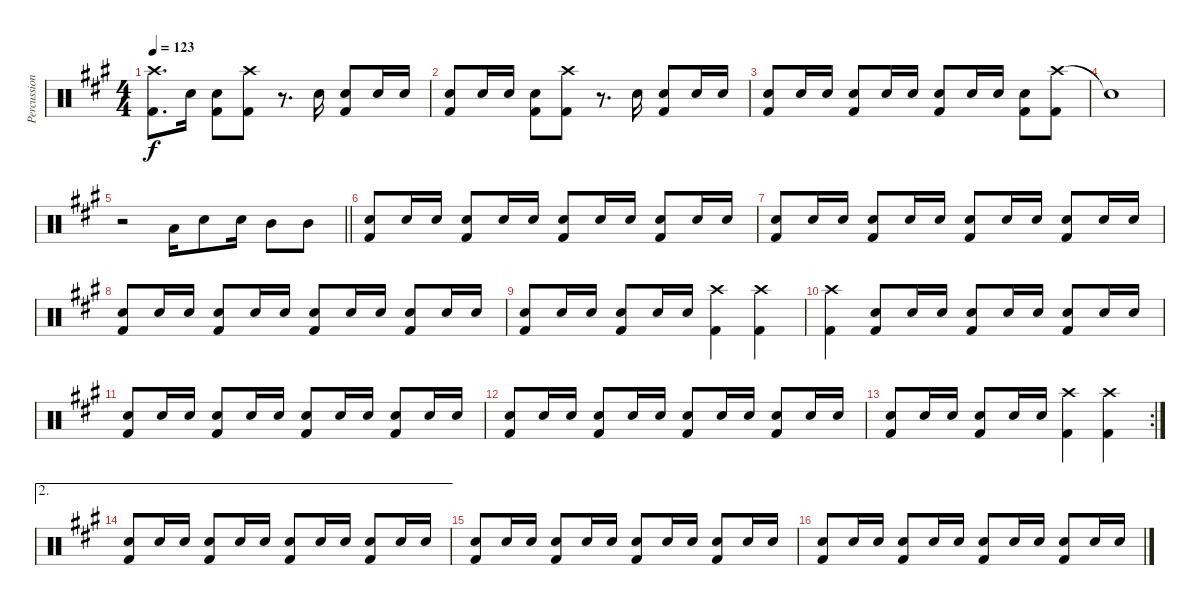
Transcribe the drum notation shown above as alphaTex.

\track ("Percussion" "Percussion") {instrument percussion}
\staff {score}
\articulation defaults
\ts (4 4)
\tempo 123
\clef neutral
\ks a
("Crash high (hit)" "Kick (hit) 2").8{d dy f} "Snare (hit) 2".16 ("Snare (hit) 2" "Kick (hit) 2").8 ("Crash high (hit)" "Kick (hit) 2").8 r.8{d} "Snare (hit) 2".16 ("Snare (hit) 2" "Kick (hit) 2").8 "Snare (hit) 2".16 "Snare (hit) 2".16 |
("Snare (hit) 2" "Kick (hit) 2").8 "Snare (hit) 2".16 "Snare (hit) 2".16 ("Snare (hit) 2" "Kick (hit) 2").8 ("Crash high (hit)" "Kick (hit) 2").8 r.8{d} "Snare (hit) 2".16 ("Snare (hit) 2" "Kick (hit) 2").8 "Snare (hit) 2".16 "Snare (hit) 2".16 |
("Snare (hit) 2" "Kick (hit) 2").8 "Snare (hit) 2".16 "Snare (hit) 2".16 ("Snare (hit) 2" "Kick (hit) 2").8 "Snare (hit) 2".16 "Snare (hit) 2".16 ("Snare (hit) 2" "Kick (hit) 2").8 "Snare (hit) 2".16 "Snare (hit) 2".16 ("Snare (hit) 2" "Kick (hit) 2").8 ("Crash high (hit)" "Kick (hit) 2").8 |
"Snare (hit)"{t}.1 |
\barLineRight lightlight
r.2 "Low Tom (hit)".16 "Snare (hit) 2".8 "Snare (hit) 2".16 "Mid Tom (hit)".8 "Mid Tom (hit)".8 |
("Snare (hit) 2" "Kick (hit) 2").8 "Snare (hit) 2".16 "Snare (hit) 2".16 ("Snare (hit) 2" "Kick (hit) 2").8 "Snare (hit) 2".16 "Snare (hit) 2".16 ("Snare (hit) 2" "Kick (hit) 2").8 "Snare (hit) 2".16 "Snare (hit) 2".16 ("Snare (hit) 2" "Kick (hit) 2").8 "Snare (hit) 2".16 "Snare (hit) 2".16 |
("Snare (hit) 2" "Kick (hit) 2").8 "Snare (hit) 2".16 "Snare (hit) 2".16 ("Snare (hit) 2" "Kick (hit) 2").8 "Snare (hit) 2".16 "Snare (hit) 2".16 ("Snare (hit) 2" "Kick (hit) 2").8 "Snare (hit) 2".16 "Snare (hit) 2".16 ("Snare (hit) 2" "Kick (hit) 2").8 "Snare (hit) 2".16 "Snare (hit) 2".16 |
("Snare (hit) 2" "Kick (hit) 2").8 "Snare (hit) 2".16 "Snare (hit) 2".16 ("Snare (hit) 2" "Kick (hit) 2").8 "Snare (hit) 2".16 "Snare (hit) 2".16 ("Snare (hit) 2" "Kick (hit) 2").8 "Snare (hit) 2".16 "Snare (hit) 2".16 ("Snare (hit) 2" "Kick (hit) 2").8 "Snare (hit) 2".16 "Snare (hit) 2".16 |
("Snare (hit) 2" "Kick (hit) 2").8 "Snare (hit) 2".16 "Snare (hit) 2".16 ("Snare (hit) 2" "Kick (hit) 2").8 "Snare (hit) 2".16 "Snare (hit) 2".16 ("Crash high (hit)" "Kick (hit) 2").4 ("Crash high (hit)" "Kick (hit) 2").4 |
("Crash high (hit)" "Kick (hit) 2").4 ("Snare (hit) 2" "Kick (hit) 2").8 "Snare (hit) 2".16 "Snare (hit) 2".16 ("Snare (hit) 2" "Kick (hit) 2").8 "Snare (hit) 2".16 "Snare (hit) 2".16 ("Snare (hit) 2" "Kick (hit) 2").8 "Snare (hit) 2".16 "Snare (hit) 2".16 |
("Snare (hit) 2" "Kick (hit) 2").8 "Snare (hit) 2".16 "Snare (hit) 2".16 ("Snare (hit) 2" "Kick (hit) 2").8 "Snare (hit) 2".16 "Snare (hit) 2".16 ("Snare (hit) 2" "Kick (hit) 2").8 "Snare (hit) 2".16 "Snare (hit) 2".16 ("Snare (hit) 2" "Kick (hit) 2").8 "Snare (hit) 2".16 "Snare (hit) 2".16 |
("Snare (hit) 2" "Kick (hit) 2").8 "Snare (hit) 2".16 "Snare (hit) 2".16 ("Snare (hit) 2" "Kick (hit) 2").8 "Snare (hit) 2".16 "Snare (hit) 2".16 ("Snare (hit) 2" "Kick (hit) 2").8 "Snare (hit) 2".16 "Snare (hit) 2".16 ("Snare (hit) 2" "Kick (hit) 2").8 "Snare (hit) 2".16 "Snare (hit) 2".16 |
\rc 2
("Snare (hit) 2" "Kick (hit) 2").8 "Snare (hit) 2".16 "Snare (hit) 2".16 ("Snare (hit) 2" "Kick (hit) 2").8 "Snare (hit) 2".16 "Snare (hit) 2".16 ("Crash high (hit)" "Kick (hit) 2").4 ("Crash high (hit)" "Kick (hit) 2").4 |
\ae 2
("Snare (hit) 2" "Kick (hit) 2").8 "Snare (hit) 2".16 "Snare (hit) 2".16 ("Snare (hit) 2" "Kick (hit) 2").8 "Snare (hit) 2".16 "Snare (hit) 2".16 ("Snare (hit) 2" "Kick (hit) 2").8 "Snare (hit) 2".16 "Snare (hit) 2".16 ("Snare (hit) 2" "Kick (hit) 2").8 "Snare (hit) 2".16 "Snare (hit) 2".16 |
("Snare (hit) 2" "Kick (hit) 2").8 "Snare (hit) 2".16 "Snare (hit) 2".16 ("Snare (hit) 2" "Kick (hit) 2").8 "Snare (hit) 2".16 "Snare (hit) 2".16 ("Snare (hit) 2" "Kick (hit) 2").8 "Snare (hit) 2".16 "Snare (hit) 2".16 ("Snare (hit) 2" "Kick (hit) 2").8 "Snare (hit) 2".16 "Snare (hit) 2".16 |
("Snare (hit) 2" "Kick (hit) 2").8 "Snare (hit) 2".16 "Snare (hit) 2".16 ("Snare (hit) 2" "Kick (hit) 2").8 "Snare (hit) 2".16 "Snare (hit) 2".16 ("Snare (hit) 2" "Kick (hit) 2").8 "Snare (hit) 2".16 "Snare (hit) 2".16 ("Snare (hit) 2" "Kick (hit) 2").8 "Snare (hit) 2".16 "Snare (hit) 2".16
